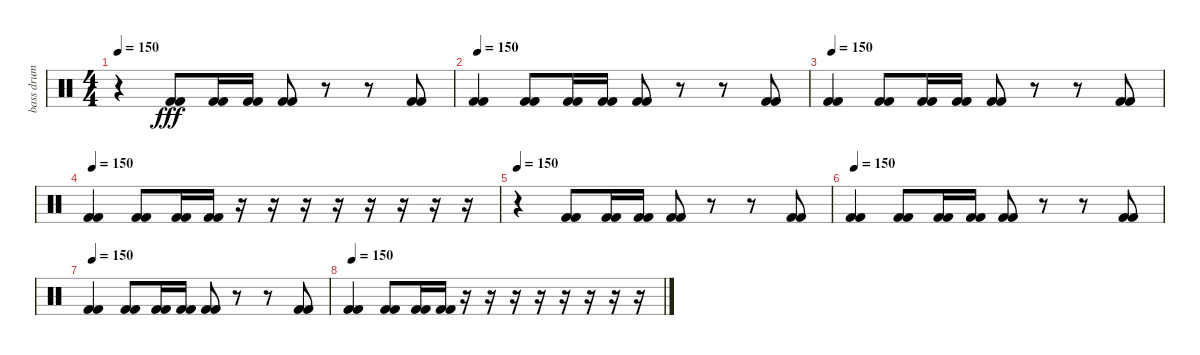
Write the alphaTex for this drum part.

\track ("bass drum" "bass drum") {instrument percussion}
\staff {score}
\articulation defaults
\ts (4 4)
\tempo 150
\clef neutral
\ks c
r.4{dy f volume 16} ("Kick (hit) 2" "Kick (hit) 2").8{dy fff} ("Kick (hit) 2" "Kick (hit) 2").16 ("Kick (hit) 2" "Kick (hit) 2").16 ("Kick (hit) 2" "Kick (hit) 2").8 r.8 r.8 ("Kick (hit) 2" "Kick (hit) 2").8 |
\tempo 150
("Kick (hit) 2" "Kick (hit) 2").4 ("Kick (hit) 2" "Kick (hit) 2").8 ("Kick (hit) 2" "Kick (hit) 2").16 ("Kick (hit) 2" "Kick (hit) 2").16 ("Kick (hit) 2" "Kick (hit) 2").8 r.8 r.8 ("Kick (hit) 2" "Kick (hit) 2").8 |
\tempo 150
("Kick (hit) 2" "Kick (hit) 2").4 ("Kick (hit) 2" "Kick (hit) 2").8 ("Kick (hit) 2" "Kick (hit) 2").16 ("Kick (hit) 2" "Kick (hit) 2").16 ("Kick (hit) 2" "Kick (hit) 2").8 r.8 r.8 ("Kick (hit) 2" "Kick (hit) 2").8 |
\tempo 150
("Kick (hit) 2" "Kick (hit) 2").4 ("Kick (hit) 2" "Kick (hit) 2").8 ("Kick (hit) 2" "Kick (hit) 2").16 ("Kick (hit) 2" "Kick (hit) 2").16 r.16 r.16 r.16 r.16 r.16 r.16 r.16 r.16 |
\tempo 150
r.4{volume 16} ("Kick (hit) 2" "Kick (hit) 2").8 ("Kick (hit) 2" "Kick (hit) 2").16 ("Kick (hit) 2" "Kick (hit) 2").16 ("Kick (hit) 2" "Kick (hit) 2").8 r.8 r.8 ("Kick (hit) 2" "Kick (hit) 2").8 |
\tempo 150
("Kick (hit) 2" "Kick (hit) 2").4 ("Kick (hit) 2" "Kick (hit) 2").8 ("Kick (hit) 2" "Kick (hit) 2").16 ("Kick (hit) 2" "Kick (hit) 2").16 ("Kick (hit) 2" "Kick (hit) 2").8 r.8 r.8 ("Kick (hit) 2" "Kick (hit) 2").8 |
\tempo 150
("Kick (hit) 2" "Kick (hit) 2").4 ("Kick (hit) 2" "Kick (hit) 2").8 ("Kick (hit) 2" "Kick (hit) 2").16 ("Kick (hit) 2" "Kick (hit) 2").16 ("Kick (hit) 2" "Kick (hit) 2").8 r.8 r.8 ("Kick (hit) 2" "Kick (hit) 2").8 |
\tempo 150
("Kick (hit) 2" "Kick (hit) 2").4 ("Kick (hit) 2" "Kick (hit) 2").8 ("Kick (hit) 2" "Kick (hit) 2").16 ("Kick (hit) 2" "Kick (hit) 2").16 r.16 r.16 r.16 r.16 r.16 r.16 r.16 r.16
